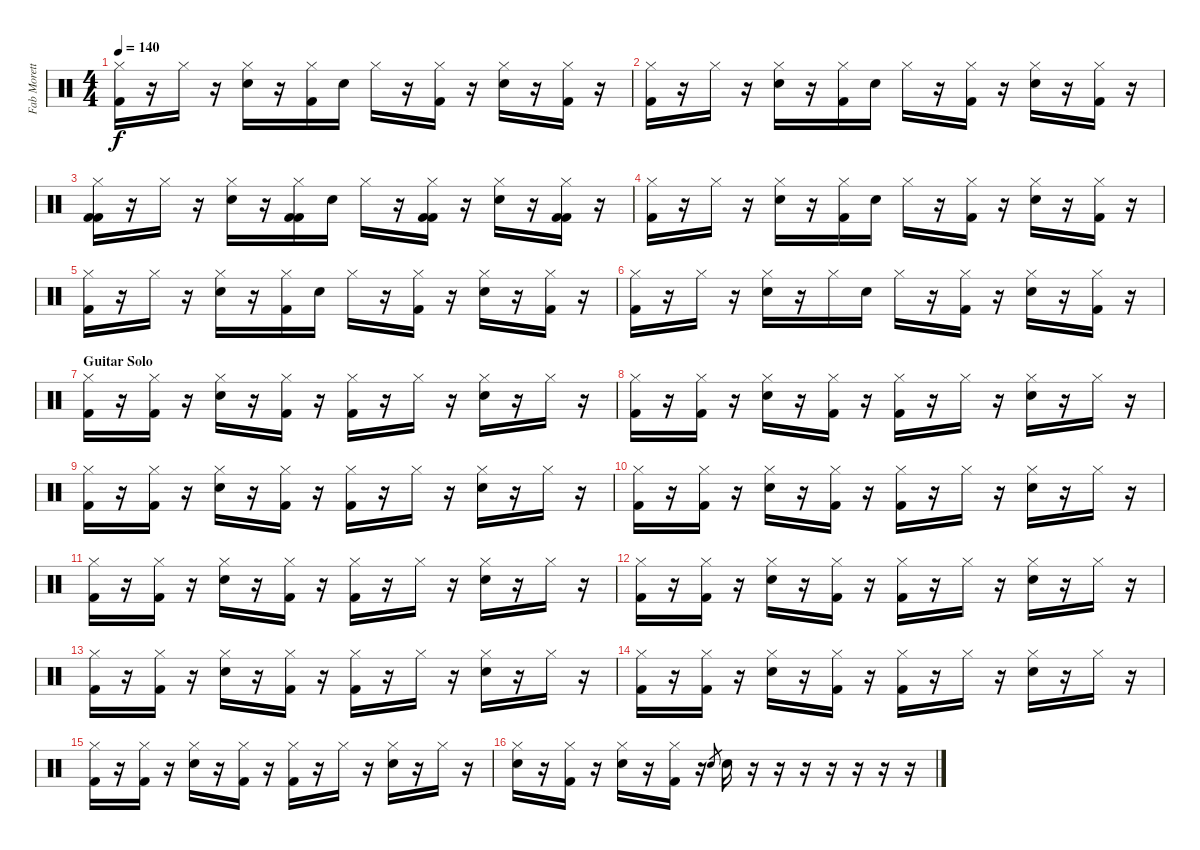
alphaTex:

\track ("Fab Moretti - Drums" "Fab Morett") {instrument percussion}
\staff {score}
\articulation defaults
\ts (4 4)
\tempo 140
\clef neutral
\ks c
("Hi-Hat (closed)" "Kick (hit) 2").16{dy f} r.16 "Hi-Hat (closed)".16 r.16 ("Hi-Hat (closed)" "Snare (hit) 2").16 r.16 ("Hi-Hat (closed)" "Kick (hit) 2").16 "Snare (hit) 2".16 "Hi-Hat (closed)".16 r.16 ("Hi-Hat (closed)" "Kick (hit) 2").16 r.16 ("Hi-Hat (closed)" "Snare (hit) 2").16 r.16 ("Hi-Hat (closed)" "Kick (hit) 2").16 r.16 |
("Hi-Hat (closed)" "Kick (hit) 2").16 r.16 "Hi-Hat (closed)".16 r.16 ("Hi-Hat (closed)" "Snare (hit) 2").16 r.16 ("Hi-Hat (closed)" "Kick (hit) 2").16 "Snare (hit) 2".16 "Hi-Hat (closed)".16 r.16 ("Hi-Hat (closed)" "Kick (hit) 2").16 r.16 ("Hi-Hat (closed)" "Snare (hit) 2").16 r.16 ("Hi-Hat (closed)" "Kick (hit) 2").16 r.16 |
("Hi-Hat (closed)" "Kick (hit) 2" "Kick (hit) 2").16 r.16 "Hi-Hat (closed)".16 r.16 ("Hi-Hat (closed)" "Snare (hit) 2").16 r.16 ("Hi-Hat (closed)" "Kick (hit) 2" "Kick (hit) 2").16 "Snare (hit) 2".16 "Hi-Hat (closed)".16 r.16 ("Hi-Hat (closed)" "Kick (hit) 2" "Kick (hit) 2").16 r.16 ("Hi-Hat (closed)" "Snare (hit) 2").16 r.16 ("Hi-Hat (closed)" "Kick (hit) 2" "Kick (hit) 2").16 r.16 |
("Hi-Hat (closed)" "Kick (hit) 2").16 r.16 "Hi-Hat (closed)".16 r.16 ("Hi-Hat (closed)" "Snare (hit) 2").16 r.16 ("Hi-Hat (closed)" "Kick (hit) 2").16 "Snare (hit) 2".16 "Hi-Hat (closed)".16 r.16 ("Hi-Hat (closed)" "Kick (hit) 2").16 r.16 ("Hi-Hat (closed)" "Snare (hit) 2").16 r.16 ("Hi-Hat (closed)" "Kick (hit) 2").16 r.16 |
("Hi-Hat (closed)" "Kick (hit) 2").16 r.16 "Hi-Hat (closed)".16 r.16 ("Hi-Hat (closed)" "Snare (hit) 2").16 r.16 ("Hi-Hat (closed)" "Kick (hit) 2").16 "Snare (hit) 2".16 "Hi-Hat (closed)".16 r.16 ("Hi-Hat (closed)" "Kick (hit) 2").16 r.16 ("Hi-Hat (closed)" "Snare (hit) 2").16 r.16 ("Hi-Hat (closed)" "Kick (hit) 2").16 r.16 |
("Hi-Hat (closed)" "Kick (hit) 2").16 r.16 "Hi-Hat (closed)".16 r.16 ("Hi-Hat (closed)" "Snare (hit) 2").16 r.16 "Hi-Hat (closed)".16 "Snare (hit) 2".16 "Hi-Hat (closed)".16 r.16 ("Hi-Hat (closed)" "Kick (hit) 2").16 r.16 ("Hi-Hat (closed)" "Snare (hit) 2").16 r.16 ("Hi-Hat (closed)" "Kick (hit) 2").16 r.16 |
\section ("" "Guitar Solo")
("Hi-Hat (closed)" "Kick (hit) 2").16 r.16 ("Hi-Hat (closed)" "Kick (hit) 2").16 r.16 ("Hi-Hat (closed)" "Snare (hit) 2").16 r.16 ("Hi-Hat (closed)" "Kick (hit) 2").16 r.16 ("Hi-Hat (closed)" "Kick (hit) 2").16 r.16 "Hi-Hat (closed)".16 r.16 ("Hi-Hat (closed)" "Snare (hit) 2").16 r.16 "Hi-Hat (closed)".16 r.16 |
("Hi-Hat (closed)" "Kick (hit) 2").16 r.16 ("Hi-Hat (closed)" "Kick (hit) 2").16 r.16 ("Hi-Hat (closed)" "Snare (hit) 2").16 r.16 ("Hi-Hat (closed)" "Kick (hit) 2").16 r.16 ("Hi-Hat (closed)" "Kick (hit) 2").16 r.16 "Hi-Hat (closed)".16 r.16 ("Hi-Hat (closed)" "Snare (hit) 2").16 r.16 "Hi-Hat (closed)".16 r.16 |
("Hi-Hat (closed)" "Kick (hit) 2").16 r.16 ("Hi-Hat (closed)" "Kick (hit) 2").16 r.16 ("Hi-Hat (closed)" "Snare (hit) 2").16 r.16 ("Hi-Hat (closed)" "Kick (hit) 2").16 r.16 ("Hi-Hat (closed)" "Kick (hit) 2").16 r.16 "Hi-Hat (closed)".16 r.16 ("Hi-Hat (closed)" "Snare (hit) 2").16 r.16 "Hi-Hat (closed)".16 r.16 |
("Hi-Hat (closed)" "Kick (hit) 2").16 r.16 ("Hi-Hat (closed)" "Kick (hit) 2").16 r.16 ("Hi-Hat (closed)" "Snare (hit) 2").16 r.16 ("Hi-Hat (closed)" "Kick (hit) 2").16 r.16 ("Hi-Hat (closed)" "Kick (hit) 2").16 r.16 "Hi-Hat (closed)".16 r.16 ("Hi-Hat (closed)" "Snare (hit) 2").16 r.16 "Hi-Hat (closed)".16 r.16 |
("Hi-Hat (closed)" "Kick (hit) 2").16 r.16 ("Hi-Hat (closed)" "Kick (hit) 2").16 r.16 ("Hi-Hat (closed)" "Snare (hit) 2").16 r.16 ("Hi-Hat (closed)" "Kick (hit) 2").16 r.16 ("Hi-Hat (closed)" "Kick (hit) 2").16 r.16 "Hi-Hat (closed)".16 r.16 ("Hi-Hat (closed)" "Snare (hit) 2").16 r.16 "Hi-Hat (closed)".16 r.16 |
("Hi-Hat (closed)" "Kick (hit) 2").16 r.16 ("Hi-Hat (closed)" "Kick (hit) 2").16 r.16 ("Hi-Hat (closed)" "Snare (hit) 2").16 r.16 ("Hi-Hat (closed)" "Kick (hit) 2").16 r.16 ("Hi-Hat (closed)" "Kick (hit) 2").16 r.16 "Hi-Hat (closed)".16 r.16 ("Hi-Hat (closed)" "Snare (hit) 2").16 r.16 "Hi-Hat (closed)".16 r.16 |
("Hi-Hat (closed)" "Kick (hit) 2").16 r.16 ("Hi-Hat (closed)" "Kick (hit) 2").16 r.16 ("Hi-Hat (closed)" "Snare (hit) 2").16 r.16 ("Hi-Hat (closed)" "Kick (hit) 2").16 r.16 ("Hi-Hat (closed)" "Kick (hit) 2").16 r.16 "Hi-Hat (closed)".16 r.16 ("Hi-Hat (closed)" "Snare (hit) 2").16 r.16 "Hi-Hat (closed)".16 r.16 |
("Hi-Hat (closed)" "Kick (hit) 2").16 r.16 ("Hi-Hat (closed)" "Kick (hit) 2").16 r.16 ("Hi-Hat (closed)" "Snare (hit) 2").16 r.16 ("Hi-Hat (closed)" "Kick (hit) 2").16 r.16 ("Hi-Hat (closed)" "Kick (hit) 2").16 r.16 "Hi-Hat (closed)".16 r.16 ("Hi-Hat (closed)" "Snare (hit) 2").16 r.16 "Hi-Hat (closed)".16 r.16 |
("Hi-Hat (closed)" "Kick (hit) 2").16 r.16 ("Hi-Hat (closed)" "Kick (hit) 2").16 r.16 ("Hi-Hat (closed)" "Snare (hit) 2").16 r.16 ("Hi-Hat (closed)" "Kick (hit) 2").16 r.16 ("Hi-Hat (closed)" "Kick (hit) 2").16 r.16 "Hi-Hat (closed)".16 r.16 ("Hi-Hat (closed)" "Snare (hit) 2").16 r.16 "Hi-Hat (closed)".16 r.16 |
("Hi-Hat (closed)" "Snare (hit) 2").16 r.16 ("Hi-Hat (closed)" "Kick (hit) 2").16 r.16 ("Hi-Hat (closed)" "Snare (hit) 2").16 r.16 ("Hi-Hat (closed)" "Kick (hit) 2").16 r.16 "Snare (hit) 2".8{gr} "Snare (hit) 2".16 r.16 r.16 r.16 r.16 r.16 r.16 r.16
